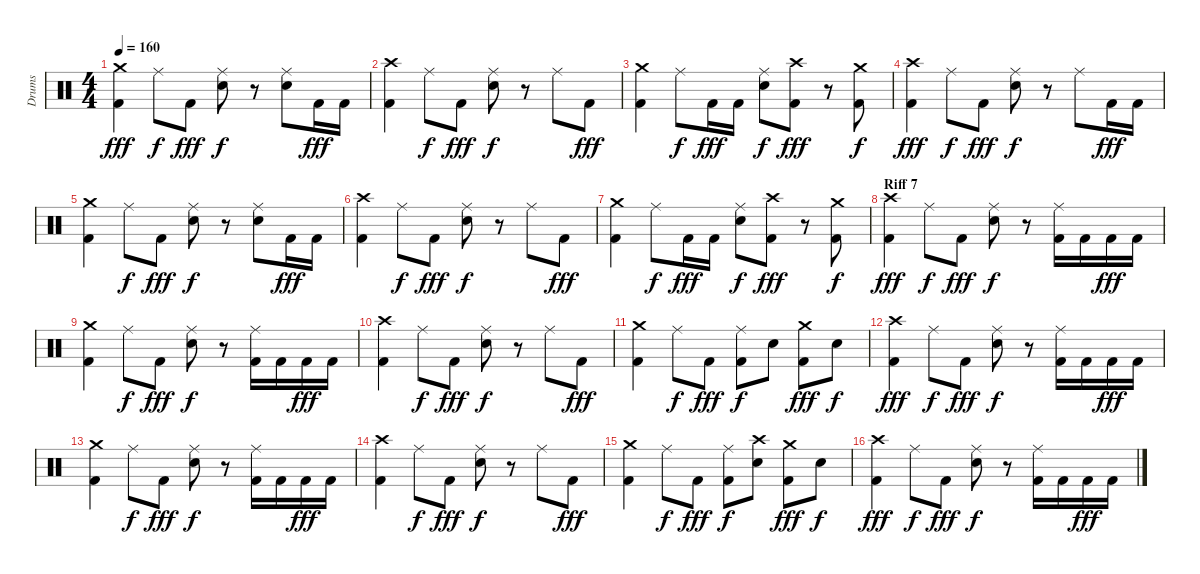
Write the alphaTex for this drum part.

\track ("Drums" "Drums") {instrument percussion}
\staff {score}
\articulation defaults
\ts (4 4)
\tempo 160
\clef neutral
\ks c
("Crash medium (hit)" "Kick (hit) 2").4{dy fff} "Ride (middle)".8{dy f} "Kick (hit) 2".8{dy fff} ("Ride (middle)" "Electric Snare (hit)").8{dy f} r.8 ("Ride (middle)" "Electric Snare (hit)").8 "Kick (hit) 2".16{dy fff} "Kick (hit) 2".16 |
("Crash high (hit)" "Kick (hit) 2").4 "Ride (middle)".8{dy f} "Kick (hit) 2".8{dy fff} ("Ride (middle)" "Electric Snare (hit)").8{dy f} r.8 "Ride (middle)".8 "Kick (hit) 2".8{dy fff} |
("Crash medium (hit)" "Kick (hit) 2").4 "Ride (middle)".8{dy f} "Kick (hit) 2".16{dy fff} "Kick (hit) 2".16 ("Ride (middle)" "Electric Snare (hit)").8{dy f} ("Crash high (hit)" "Kick (hit) 2").8{dy fff} r.8 ("Crash medium (hit)" "Kick (hit) 2").8{dy f} |
("Crash high (hit)" "Kick (hit) 2").4{dy fff} "Ride (middle)".8{dy f} "Kick (hit) 2".8{dy fff} ("Ride (middle)" "Electric Snare (hit)").8{dy f} r.8 "Ride (middle)".8 "Kick (hit) 2".16{dy fff} "Kick (hit) 2".16 |
("Crash medium (hit)" "Kick (hit) 2").4 "Ride (middle)".8{dy f} "Kick (hit) 2".8{dy fff} ("Ride (middle)" "Electric Snare (hit)").8{dy f} r.8 ("Ride (middle)" "Electric Snare (hit)").8 "Kick (hit) 2".16{dy fff} "Kick (hit) 2".16 |
("Crash high (hit)" "Kick (hit) 2").4 "Ride (middle)".8{dy f} "Kick (hit) 2".8{dy fff} ("Ride (middle)" "Electric Snare (hit)").8{dy f} r.8 "Ride (middle)".8 "Kick (hit) 2".8{dy fff} |
("Crash medium (hit)" "Kick (hit) 2").4 "Ride (middle)".8{dy f} "Kick (hit) 2".16{dy fff} "Kick (hit) 2".16 ("Ride (middle)" "Electric Snare (hit)").8{dy f} ("Crash high (hit)" "Kick (hit) 2").8{dy fff} r.8 ("Crash medium (hit)" "Kick (hit) 2").8{dy f} |
\section ("" "Riff 7")
("Crash high (hit)" "Kick (hit) 2").4{dy fff} "Ride (middle)".8{dy f} "Kick (hit) 2".8{dy fff} ("Ride (middle)" "Electric Snare (hit)").8{dy f} r.8 ("Ride (middle)" "Kick (hit) 2").16 "Kick (hit) 2".16 "Kick (hit) 2".16{dy fff} "Kick (hit) 2".16 |
("Crash medium (hit)" "Kick (hit) 2").4 "Ride (middle)".8{dy f} "Kick (hit) 2".8{dy fff} ("Ride (middle)" "Electric Snare (hit)").8{dy f} r.8 ("Ride (middle)" "Kick (hit) 2").16 "Kick (hit) 2".16 "Kick (hit) 2".16{dy fff} "Kick (hit) 2".16 |
("Crash high (hit)" "Kick (hit) 2").4 "Ride (middle)".8{dy f} "Kick (hit) 2".8{dy fff} ("Ride (middle)" "Electric Snare (hit)").8{dy f} r.8 "Ride (middle)".8 "Kick (hit) 2".8{dy fff} |
("Crash medium (hit)" "Kick (hit) 2").4 "Ride (middle)".8{dy f} "Kick (hit) 2".8{dy fff} ("Ride (middle)" "Kick (hit) 2").8{dy f} "Electric Snare (hit)".8 ("Crash medium (hit)" "Kick (hit) 2").8{dy fff} "Electric Snare (hit)".8{dy f} |
("Crash high (hit)" "Kick (hit) 2").4{dy fff} "Ride (middle)".8{dy f} "Kick (hit) 2".8{dy fff} ("Ride (middle)" "Electric Snare (hit)").8{dy f} r.8 ("Ride (middle)" "Kick (hit) 2").16 "Kick (hit) 2".16 "Kick (hit) 2".16{dy fff} "Kick (hit) 2".16 |
("Crash medium (hit)" "Kick (hit) 2").4 "Ride (middle)".8{dy f} "Kick (hit) 2".8{dy fff} ("Ride (middle)" "Electric Snare (hit)").8{dy f} r.8 ("Ride (middle)" "Kick (hit) 2").16 "Kick (hit) 2".16 "Kick (hit) 2".16{dy fff} "Kick (hit) 2".16 |
("Crash high (hit)" "Kick (hit) 2").4 "Ride (middle)".8{dy f} "Kick (hit) 2".8{dy fff} ("Ride (middle)" "Electric Snare (hit)").8{dy f} r.8 "Ride (middle)".8 "Kick (hit) 2".8{dy fff} |
("Crash medium (hit)" "Kick (hit) 2").4 "Ride (middle)".8{dy f} "Kick (hit) 2".8{dy fff} ("Ride (middle)" "Kick (hit) 2").8{dy f} ("Crash high (hit)" "Electric Snare (hit)").8 ("Crash medium (hit)" "Kick (hit) 2").8{dy fff} "Electric Snare (hit)".8{dy f} |
("Crash high (hit)" "Kick (hit) 2").4{dy fff} "Ride (middle)".8{dy f} "Kick (hit) 2".8{dy fff} ("Ride (middle)" "Electric Snare (hit)").8{dy f} r.8 ("Ride (middle)" "Kick (hit) 2").16 "Kick (hit) 2".16 "Kick (hit) 2".16{dy fff} "Kick (hit) 2".16
